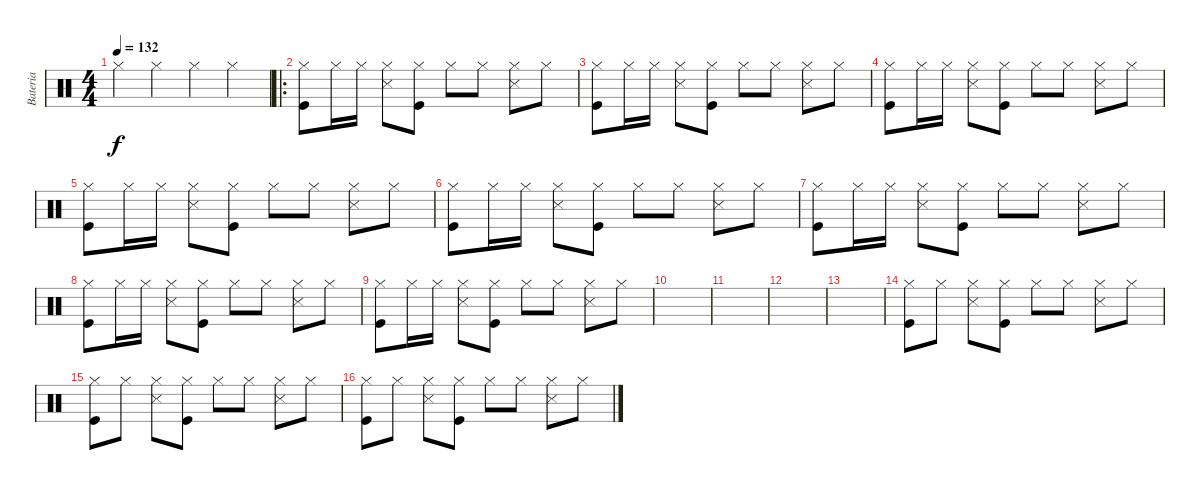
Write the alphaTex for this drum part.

\track ("Bateria" "Bateria") {instrument percussion}
\staff {score}
\articulation defaults
\ts (4 4)
\tempo 132
\clef neutral
\ks c "Hi-Hat (closed)".4{dy f} "Hi-Hat (closed)".4 "Hi-Hat (closed)".4 "Hi-Hat (closed)".4
|
\ro
("Hi-Hat (closed)" "Kick (hit)").8 "Hi-Hat (closed)".16 "Hi-Hat (closed)".16 ("Hi-Hat (closed)" "Snare (side stick) 3").8 ("Hi-Hat (closed)" "Kick (hit)").8 "Hi-Hat (closed)".8 "Hi-Hat (closed)".8 ("Hi-Hat (closed)" "Snare (side stick) 3").8 "Hi-Hat (closed)".8 |
("Hi-Hat (closed)" "Kick (hit)").8 "Hi-Hat (closed)".16 "Hi-Hat (closed)".16 ("Hi-Hat (closed)" "Snare (side stick) 3").8 ("Hi-Hat (closed)" "Kick (hit)").8 "Hi-Hat (closed)".8 "Hi-Hat (closed)".8 ("Hi-Hat (closed)" "Snare (side stick) 3").8 "Hi-Hat (closed)".8 |
("Hi-Hat (closed)" "Kick (hit)").8 "Hi-Hat (closed)".16 "Hi-Hat (closed)".16 ("Hi-Hat (closed)" "Snare (side stick) 3").8 ("Hi-Hat (closed)" "Kick (hit)").8 "Hi-Hat (closed)".8 "Hi-Hat (closed)".8 ("Hi-Hat (closed)" "Snare (side stick) 3").8 "Hi-Hat (closed)".8 |
("Hi-Hat (closed)" "Kick (hit)").8 "Hi-Hat (closed)".16 "Hi-Hat (closed)".16 ("Hi-Hat (closed)" "Snare (side stick) 3").8 ("Hi-Hat (closed)" "Kick (hit)").8 "Hi-Hat (closed)".8 "Hi-Hat (closed)".8 ("Hi-Hat (closed)" "Snare (side stick) 3").8 "Hi-Hat (closed)".8 |
("Hi-Hat (closed)" "Kick (hit)").8 "Hi-Hat (closed)".16 "Hi-Hat (closed)".16 ("Hi-Hat (closed)" "Snare (side stick) 3").8 ("Hi-Hat (closed)" "Kick (hit)").8 "Hi-Hat (closed)".8 "Hi-Hat (closed)".8 ("Hi-Hat (closed)" "Snare (side stick) 3").8 "Hi-Hat (closed)".8 |
("Hi-Hat (closed)" "Kick (hit)").8 "Hi-Hat (closed)".16 "Hi-Hat (closed)".16 ("Hi-Hat (closed)" "Snare (side stick) 3").8 ("Hi-Hat (closed)" "Kick (hit)").8 "Hi-Hat (closed)".8 "Hi-Hat (closed)".8 ("Hi-Hat (closed)" "Snare (side stick) 3").8 "Hi-Hat (closed)".8 |
("Hi-Hat (closed)" "Kick (hit)").8 "Hi-Hat (closed)".16 "Hi-Hat (closed)".16 ("Hi-Hat (closed)" "Snare (side stick) 3").8 ("Hi-Hat (closed)" "Kick (hit)").8 "Hi-Hat (closed)".8 "Hi-Hat (closed)".8 ("Hi-Hat (closed)" "Snare (side stick) 3").8 "Hi-Hat (closed)".8 |
("Hi-Hat (closed)" "Kick (hit)").8 "Hi-Hat (closed)".16 "Hi-Hat (closed)".16 ("Hi-Hat (closed)" "Snare (side stick) 3").8 ("Hi-Hat (closed)" "Kick (hit)").8 "Hi-Hat (closed)".8 "Hi-Hat (closed)".8 ("Hi-Hat (closed)" "Snare (side stick) 3").8 "Hi-Hat (closed)".8 |
|
|
|
|
("Hi-Hat (closed)" "Kick (hit)").8 "Hi-Hat (closed)".8 ("Hi-Hat (closed)" "Snare (side stick) 3").8 ("Hi-Hat (closed)" "Kick (hit)").8 "Hi-Hat (closed)".8 "Hi-Hat (closed)".8 ("Hi-Hat (closed)" "Snare (side stick) 3").8 "Hi-Hat (closed)".8 |
("Hi-Hat (closed)" "Kick (hit)").8 "Hi-Hat (closed)".8 ("Hi-Hat (closed)" "Snare (side stick) 3").8 ("Hi-Hat (closed)" "Kick (hit)").8 "Hi-Hat (closed)".8 "Hi-Hat (closed)".8 ("Hi-Hat (closed)" "Snare (side stick) 3").8 "Hi-Hat (closed)".8 |
("Hi-Hat (closed)" "Kick (hit)").8 "Hi-Hat (closed)".8 ("Hi-Hat (closed)" "Snare (side stick) 3").8 ("Hi-Hat (closed)" "Kick (hit)").8 "Hi-Hat (closed)".8 "Hi-Hat (closed)".8 ("Hi-Hat (closed)" "Snare (side stick) 3").8 "Hi-Hat (closed)".8
